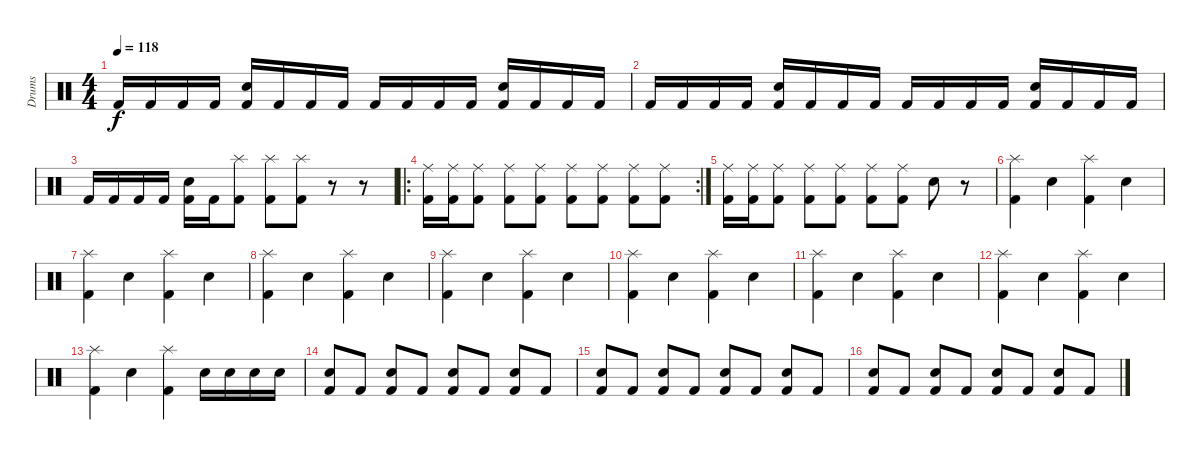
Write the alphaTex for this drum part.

\track ("Drums" "Drums") {instrument percussion}
\staff {score}
\articulation defaults
\ts (4 4)
\tempo 118
\clef neutral
\ks c "Kick (hit) 2".16{dy f} "Kick (hit) 2".16 "Kick (hit) 2".16 "Kick (hit) 2".16
("Snare (hit) 2" "Kick (hit) 2").16 "Kick (hit) 2".16 "Kick (hit) 2".16 "Kick (hit) 2".16 "Kick (hit) 2".16 "Kick (hit) 2".16 "Kick (hit) 2".16 "Kick (hit) 2".16 ("Snare (hit) 2" "Kick (hit) 2").16 "Kick (hit) 2".16 "Kick (hit) 2".16 "Kick (hit) 2".16 |
"Kick (hit) 2".16 "Kick (hit) 2".16 "Kick (hit) 2".16 "Kick (hit) 2".16 ("Snare (hit) 2" "Kick (hit) 2").16 "Kick (hit) 2".16 "Kick (hit) 2".16 "Kick (hit) 2".16 "Kick (hit) 2".16 "Kick (hit) 2".16 "Kick (hit) 2".16 "Kick (hit) 2".16 ("Snare (hit) 2" "Kick (hit) 2").16 "Kick (hit) 2".16 "Kick (hit) 2".16 "Kick (hit) 2".16 |
"Kick (hit) 2".16 "Kick (hit) 2".16 "Kick (hit) 2".16 "Kick (hit) 2".16 ("Snare (hit) 2" "Kick (hit) 2").16 "Kick (hit) 2".16 ("Splash (hit)" "Kick (hit) 2").8 ("Splash (hit)" "Kick (hit) 2").8 ("Splash (hit)" "Kick (hit) 2").8 r.8 r.8 |
\ro
\rc 2
("Ride (middle)" "Kick (hit) 2").16 ("Ride (middle)" "Kick (hit) 2").16 ("Ride (middle)" "Kick (hit) 2").8 ("Ride (middle)" "Kick (hit) 2").8 ("Ride (middle)" "Kick (hit) 2").8 ("Ride (middle)" "Kick (hit) 2").8 ("Ride (middle)" "Kick (hit) 2").8 ("Ride (middle)" "Kick (hit) 2").8 ("Ride (middle)" "Kick (hit) 2").8 |
("Ride (middle)" "Kick (hit) 2").16 ("Ride (middle)" "Kick (hit) 2").16 ("Ride (middle)" "Kick (hit) 2").8 ("Ride (middle)" "Kick (hit) 2").8 ("Ride (middle)" "Kick (hit) 2").8 ("Ride (middle)" "Kick (hit) 2").8 ("Ride (middle)" "Kick (hit) 2").8 "Snare (hit) 2".8 r.8 |
("Splash (hit)" "Kick (hit) 2").4 "Snare (hit) 2".4 ("Splash (hit)" "Kick (hit) 2").4 "Snare (hit) 2".4 |
("Splash (hit)" "Kick (hit) 2").4 "Snare (hit) 2".4 ("Splash (hit)" "Kick (hit) 2").4 "Snare (hit) 2".4 |
("Splash (hit)" "Kick (hit) 2").4 "Snare (hit) 2".4 ("Splash (hit)" "Kick (hit) 2").4 "Snare (hit) 2".4 |
("Splash (hit)" "Kick (hit) 2").4 "Snare (hit) 2".4 ("Splash (hit)" "Kick (hit) 2").4 "Snare (hit) 2".4 |
("Splash (hit)" "Kick (hit) 2").4 "Snare (hit) 2".4 ("Splash (hit)" "Kick (hit) 2").4 "Snare (hit) 2".4 |
("Splash (hit)" "Kick (hit) 2").4 "Snare (hit) 2".4 ("Splash (hit)" "Kick (hit) 2").4 "Snare (hit) 2".4 |
("Splash (hit)" "Kick (hit) 2").4 "Snare (hit) 2".4 ("Splash (hit)" "Kick (hit) 2").4 "Snare (hit) 2".4 |
("Splash (hit)" "Kick (hit) 2").4 "Snare (hit) 2".4 ("Splash (hit)" "Kick (hit) 2").4 "Snare (hit) 2".16 "Snare (hit) 2".16 "Snare (hit) 2".16 "Snare (hit) 2".16 |
("Snare (hit) 2" "Kick (hit) 2").8 "Kick (hit) 2".8 ("Snare (hit) 2" "Kick (hit) 2").8 "Kick (hit) 2".8 ("Snare (hit) 2" "Kick (hit) 2").8 "Kick (hit) 2".8 ("Snare (hit) 2" "Kick (hit) 2").8 "Kick (hit) 2".8 |
("Snare (hit) 2" "Kick (hit) 2").8 "Kick (hit) 2".8 ("Snare (hit) 2" "Kick (hit) 2").8 "Kick (hit) 2".8 ("Snare (hit) 2" "Kick (hit) 2").8 "Kick (hit) 2".8 ("Snare (hit) 2" "Kick (hit) 2").8 "Kick (hit) 2".8 |
("Snare (hit) 2" "Kick (hit) 2").8 "Kick (hit) 2".8 ("Snare (hit) 2" "Kick (hit) 2").8 "Kick (hit) 2".8 ("Snare (hit) 2" "Kick (hit) 2").8 "Kick (hit) 2".8 ("Snare (hit) 2" "Kick (hit) 2").8 "Kick (hit) 2".8
